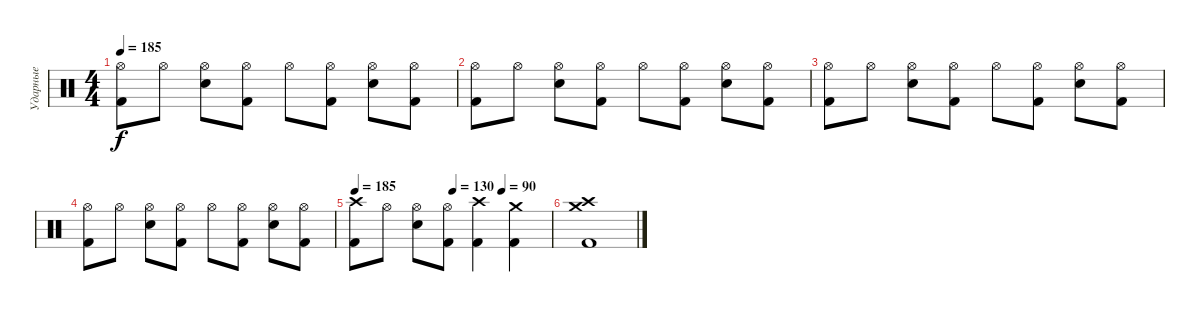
\track ("Ударные" "Ударные") {instrument percussion}
\staff {score}
\articulation defaults
\ts (4 4)
\tempo 185
\clef neutral
\ks c
("Kick (hit) 2" "Hi-Hat (open)").8{dy f} "Hi-Hat (open)".8 ("Hi-Hat (open)" "Electric Snare (hit)").8 ("Hi-Hat (open)" "Kick (hit) 2").8 "Hi-Hat (open)".8 ("Hi-Hat (open)" "Kick (hit) 2").8 ("Hi-Hat (open)" "Electric Snare (hit)").8 ("Hi-Hat (open)" "Kick (hit) 2").8 |
("Kick (hit) 2" "Hi-Hat (open)").8 "Hi-Hat (open)".8 ("Hi-Hat (open)" "Electric Snare (hit)").8 ("Hi-Hat (open)" "Kick (hit) 2").8 "Hi-Hat (open)".8 ("Hi-Hat (open)" "Kick (hit) 2").8 ("Hi-Hat (open)" "Electric Snare (hit)").8 ("Hi-Hat (open)" "Kick (hit) 2").8 |
("Kick (hit) 2" "Hi-Hat (open)").8 "Hi-Hat (open)".8 ("Hi-Hat (open)" "Electric Snare (hit)").8 ("Hi-Hat (open)" "Kick (hit) 2").8 "Hi-Hat (open)".8 ("Hi-Hat (open)" "Kick (hit) 2").8 ("Hi-Hat (open)" "Electric Snare (hit)").8 ("Hi-Hat (open)" "Kick (hit) 2").8 |
("Kick (hit) 2" "Hi-Hat (open)").8 "Hi-Hat (open)".8 ("Hi-Hat (open)" "Electric Snare (hit)").8 ("Hi-Hat (open)" "Kick (hit) 2").8 "Hi-Hat (open)".8 ("Hi-Hat (open)" "Kick (hit) 2").8 ("Hi-Hat (open)" "Electric Snare (hit)").8 ("Hi-Hat (open)" "Kick (hit) 2").8 |
\tempo 185
\tempo (130 0.5)
\tempo (90 0.75)
("Kick (hit) 2" "Crash high (hit)").8 "Hi-Hat (open)".8 ("Hi-Hat (open)" "Electric Snare (hit)").8 ("Hi-Hat (open)" "Kick (hit) 2").8 ("Kick (hit) 2" "Crash high (hit)").4 ("Kick (hit) 2" "Crash medium (hit)").4 |
("Kick (hit) 2" "Crash high (hit)" "Crash medium (hit)").1
